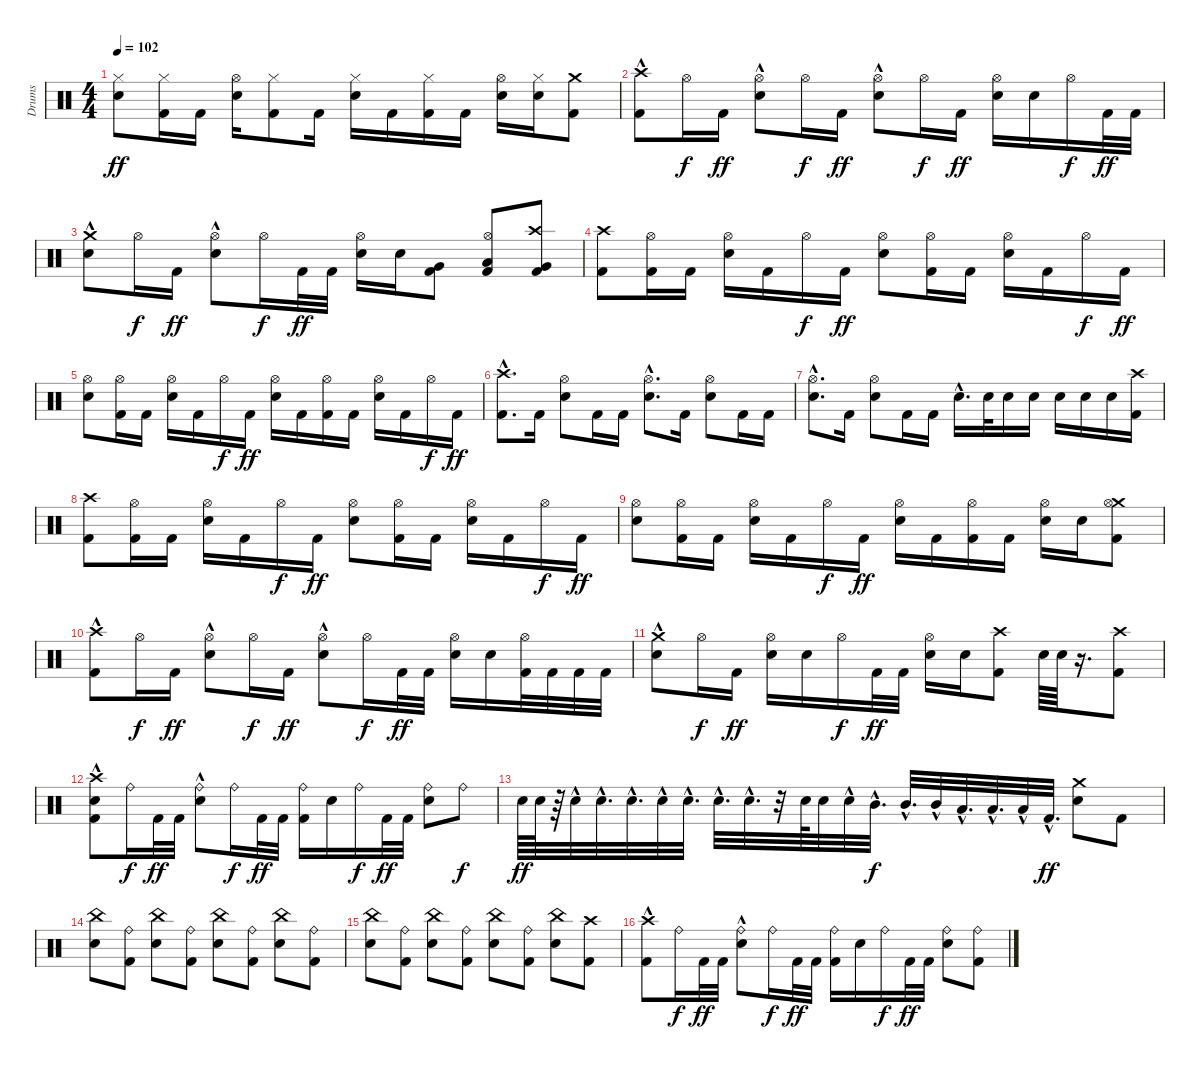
\track ("Drums" "Drums") {instrument percussion}
\staff {score}
\articulation defaults
\ts (4 4)
\tempo 102
\clef neutral
\ks c
("Hi-Hat (closed)" "Electric Snare (hit)").8{dy ff} ("Hi-Hat (closed)" "Kick (hit) 2").16 "Kick (hit) 2".16 ("Hi-Hat (open)" "Electric Snare (hit)").16 ("Hi-Hat (closed)" "Kick (hit) 2").8 "Kick (hit) 2".16 ("Hi-Hat (closed)" "Electric Snare (hit)").16 "Kick (hit) 2".16 ("Hi-Hat (closed)" "Kick (hit) 2").16 "Kick (hit) 2".16 ("Hi-Hat (open)" "Electric Snare (hit)").16 ("Hi-Hat (closed)" "Electric Snare (hit)").16 ("Crash medium (hit)" "Kick (hit) 2").8 |
("Crash high (hit)" "Kick (hit) 2"{hac}).8 "Hi-Hat (open)".16{dy f} "Kick (hit) 2".16{dy ff} ("Hi-Hat (open)" "Electric Snare (hit)"{hac}).8 "Hi-Hat (open)".16{dy f} "Kick (hit) 2".16{dy ff} ("Hi-Hat (open)" "Electric Snare (hit)"{hac}).8 "Hi-Hat (open)".16{dy f} "Kick (hit) 2".16{dy ff} ("Hi-Hat (open)" "Electric Snare (hit)").16 "Electric Snare (hit)".16 "Hi-Hat (open)".16{dy f} "Kick (hit) 2".32{dy ff} "Kick (hit) 2".32 |
("Crash medium (hit)" "Electric Snare (hit)"{hac}).8 "Hi-Hat (open)".16{dy f} "Kick (hit) 2".16{dy ff} ("Hi-Hat (open)" "Electric Snare (hit)"{hac}).8 "Hi-Hat (open)".16{dy f} "Kick (hit) 2".32{dy ff} "Kick (hit) 2".32 ("Hi-Hat (open)" "Electric Snare (hit)").16 "Electric Snare (hit)".16 ("Very Low Tom (hit)" "Kick (hit) 2").8 ("Hi-Hat (open)" "Low Floor Tom (hit)" "Kick (hit) 2").8 ("Crash high (hit)" "Very Low Tom (hit)" "Kick (hit) 2").8 |
("Crash high (hit)" "Kick (hit) 2").8 ("Kick (hit) 2" "Hi-Hat (open)").16 "Kick (hit) 2".16 ("Electric Snare (hit)" "Hi-Hat (open)").16 "Kick (hit) 2".16 "Hi-Hat (open)".16{dy f} "Kick (hit) 2".16{dy ff} ("Electric Snare (hit)" "Hi-Hat (open)").8 ("Kick (hit) 2" "Hi-Hat (open)").16 "Kick (hit) 2".16 ("Electric Snare (hit)" "Hi-Hat (open)").16 "Kick (hit) 2".16 "Hi-Hat (open)".16{dy f} "Kick (hit) 2".16{dy ff} |
("Electric Snare (hit)" "Hi-Hat (open)").8 ("Kick (hit) 2" "Hi-Hat (open)").16 "Kick (hit) 2".16 ("Electric Snare (hit)" "Hi-Hat (open)").16 "Kick (hit) 2".16 "Hi-Hat (open)".16{dy f} "Kick (hit) 2".16{dy ff} ("Electric Snare (hit)" "Hi-Hat (open)").16 "Kick (hit) 2".16 ("Kick (hit) 2" "Hi-Hat (open)").16 "Kick (hit) 2".16 ("Electric Snare (hit)" "Hi-Hat (open)").16 "Kick (hit) 2".16 "Hi-Hat (open)".16{dy f} "Kick (hit) 2".16{dy ff} |
("Crash high (hit)" "Kick (hit) 2"{hac}).8{d} "Kick (hit) 2".16 ("Hi-Hat (open)" "Electric Snare (hit)").8 "Kick (hit) 2".16 "Kick (hit) 2".16 ("Hi-Hat (open)" "Electric Snare (hit)"{hac}).8{d} "Kick (hit) 2".16 ("Hi-Hat (open)" "Electric Snare (hit)").8 "Kick (hit) 2".16 "Kick (hit) 2".16 |
("Hi-Hat (open)" "Electric Snare (hit)"{hac}).8{d} "Kick (hit) 2".16 ("Hi-Hat (open)" "Electric Snare (hit)").8 "Kick (hit) 2".16 "Kick (hit) 2".16 "Electric Snare (hit)"{hac}.16{d} "Electric Snare (hit)".32 "Electric Snare (hit)".16 "Electric Snare (hit)".16 "Electric Snare (hit)".16 "Electric Snare (hit)".16 "Electric Snare (hit)".16 ("Crash high (hit)" "Kick (hit) 2").16 |
("Crash high (hit)" "Kick (hit) 2").8 ("Kick (hit) 2" "Hi-Hat (open)").16 "Kick (hit) 2".16 ("Electric Snare (hit)" "Hi-Hat (open)").16 "Kick (hit) 2".16 "Hi-Hat (open)".16{dy f} "Kick (hit) 2".16{dy ff} ("Electric Snare (hit)" "Hi-Hat (open)").8 ("Kick (hit) 2" "Hi-Hat (open)").16 "Kick (hit) 2".16 ("Electric Snare (hit)" "Hi-Hat (open)").16 "Kick (hit) 2".16 "Hi-Hat (open)".16{dy f} "Kick (hit) 2".16{dy ff} |
("Electric Snare (hit)" "Hi-Hat (open)").8 ("Kick (hit) 2" "Hi-Hat (open)").16 "Kick (hit) 2".16 ("Electric Snare (hit)" "Hi-Hat (open)").16 "Kick (hit) 2".16 "Hi-Hat (open)".16{dy f} "Kick (hit) 2".16{dy ff} ("Electric Snare (hit)" "Hi-Hat (open)").16 "Kick (hit) 2".16 ("Kick (hit) 2" "Hi-Hat (open)").16 "Kick (hit) 2".16 ("Electric Snare (hit)" "Hi-Hat (open)").16 "Electric Snare (hit)".16 ("Crash medium (hit)" "Kick (hit) 2" "Hi-Hat (open)").8 |
("Crash high (hit)" "Kick (hit) 2"{hac}).8 "Hi-Hat (open)".16{dy f} "Kick (hit) 2".16{dy ff} ("Hi-Hat (open)" "Electric Snare (hit)"{hac}).8 "Hi-Hat (open)".16{dy f} "Kick (hit) 2".16{dy ff} ("Hi-Hat (open)" "Electric Snare (hit)"{hac}).8 "Hi-Hat (open)".16{dy f} "Kick (hit) 2".32{dy ff} "Kick (hit) 2".32 ("Hi-Hat (open)" "Electric Snare (hit)").16 "Electric Snare (hit)".16 ("Hi-Hat (open)" "Kick (hit) 2").32 "Kick (hit) 2".32 "Kick (hit) 2".32 "Kick (hit) 2".32 |
("Crash medium (hit)" "Electric Snare (hit)"{hac}).8 "Hi-Hat (open)".16{dy f} "Kick (hit) 2".16{dy ff} ("Hi-Hat (open)" "Electric Snare (hit)").16 "Electric Snare (hit)".16 "Hi-Hat (open)".16{dy f} "Kick (hit) 2".32{dy ff} "Kick (hit) 2".32 ("Hi-Hat (open)" "Electric Snare (hit)").16 "Electric Snare (hit)".16 ("Crash high (hit)" "Kick (hit) 2").8 "Electric Snare (hit)".64 "Electric Snare (hit)".64 r.16{d} ("Crash high (hit)" "Kick (hit) 2").8 |
("Snare (hit)" "Crash high (hit)" "Kick (hit) 2"{hac}).8 "Ride (bell)".16{dy f} "Kick (hit) 2".32{dy ff} "Kick (hit) 2".32 ("Ride (bell)" "Electric Snare (hit)"{hac}).8 "Ride (bell)".16{dy f} "Kick (hit) 2".32{dy ff} "Kick (hit) 2".32 ("Ride (bell)" "Kick (hit) 2").16 "Electric Snare (hit)".16 "Ride (bell)".16{dy f} "Kick (hit) 2".32{dy ff} "Kick (hit) 2".32 ("Ride (bell)" "Electric Snare (hit)").8 "Ride (bell)".8{dy f} |
"Electric Snare (hit)".64{dy ff} "Electric Snare (hit)".64 r.64 "Electric Snare (hit)"{hac}.32 "Electric Snare (hit)"{hac}.32{d} "Electric Snare (hit)"{hac}.32{d} "Electric Snare (hit)"{hac}.32 "Electric Snare (hit)"{hac}.32{d} "Electric Snare (hit)"{hac}.32{d} "Electric Snare (hit)"{hac}.32{d} r.32 "Electric Snare (hit)".64 "Electric Snare (hit)".32 "Electric Snare (hit)"{hac}.32 "Mid Tom (hit)"{hac}.32{d dy f} "Mid Tom (hit)"{hac}.32{d} "Mid Tom (hit)"{hac}.32 "Low Tom (hit)"{hac}.32{d} "Low Tom (hit)"{hac}.32{d} "Low Tom (hit)"{hac}.32 "Kick (hit) 2"{hac}.32{d dy ff} ("Crash medium (hit)" "Electric Snare (hit)").8 "Kick (hit) 2".8 |
("China (hit)" "Electric Snare (hit)").8 ("Ride (bell)" "Kick (hit) 2").8 ("China (hit)" "Electric Snare (hit)").8 ("Ride (bell)" "Kick (hit) 2").8 ("China (hit)" "Electric Snare (hit)").8 ("Ride (bell)" "Kick (hit) 2").8 ("China (hit)" "Electric Snare (hit)").8 ("Ride (bell)" "Kick (hit) 2").8 |
("China (hit)" "Electric Snare (hit)").8 ("Ride (bell)" "Kick (hit) 2").8 ("China (hit)" "Electric Snare (hit)").8 ("Ride (bell)" "Kick (hit) 2").8 ("China (hit)" "Electric Snare (hit)").8 ("Ride (bell)" "Kick (hit) 2").8 ("China (hit)" "Electric Snare (hit)").8 ("Crash high (hit)" "Kick (hit) 2").8 |
("Crash high (hit)" "Kick (hit) 2"{hac}).8 "Ride (bell)".16{dy f} "Kick (hit) 2".32{dy ff} "Kick (hit) 2".32 ("Ride (bell)" "Electric Snare (hit)"{hac}).8 "Ride (bell)".16{dy f} "Kick (hit) 2".32{dy ff} "Kick (hit) 2".32 ("Ride (bell)" "Kick (hit) 2").16 "Electric Snare (hit)".16 "Ride (bell)".16{dy f} "Kick (hit) 2".32{dy ff} "Kick (hit) 2".32 ("Ride (bell)" "Electric Snare (hit)").8 ("Ride (bell)" "Kick (hit) 2").8
